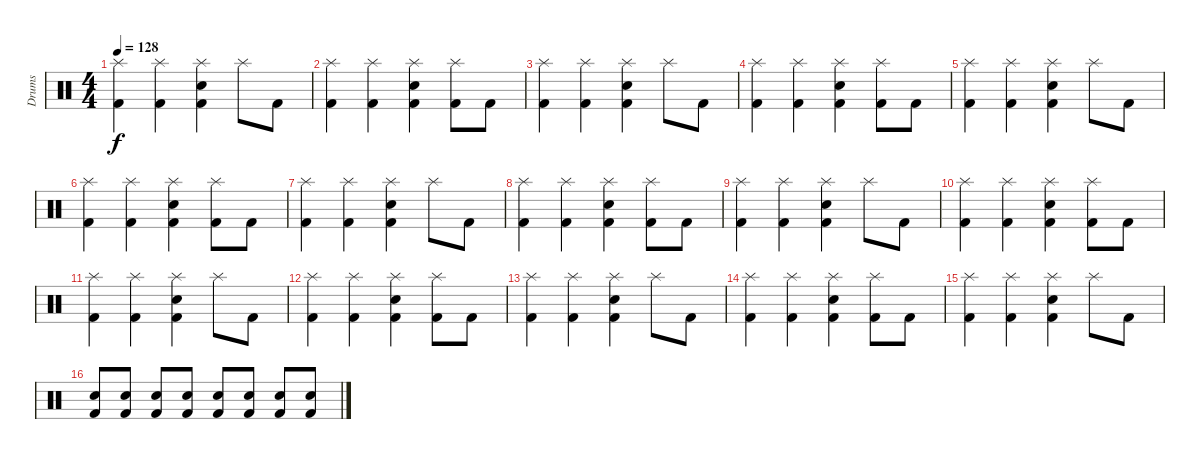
\track ("Drums" "Drums") {instrument percussion}
\staff {score}
\articulation defaults
\ts (4 4)
\tempo 128
\clef neutral
\ks c
("Splash (hit)" "Kick (hit) 2").4{dy f} ("Splash (hit)" "Kick (hit) 2").4 ("Splash (hit)" "Electric Snare (hit)" "Kick (hit) 2").4 "Splash (hit)".8 "Kick (hit) 2".8 |
("Splash (hit)" "Kick (hit) 2").4 ("Splash (hit)" "Kick (hit) 2").4 ("Splash (hit)" "Electric Snare (hit)" "Kick (hit) 2").4 ("Splash (hit)" "Kick (hit) 2").8 "Kick (hit) 2".8 |
("Splash (hit)" "Kick (hit) 2").4 ("Splash (hit)" "Kick (hit) 2").4 ("Splash (hit)" "Electric Snare (hit)" "Kick (hit) 2").4 "Splash (hit)".8 "Kick (hit) 2".8 |
("Splash (hit)" "Kick (hit) 2").4 ("Splash (hit)" "Kick (hit) 2").4 ("Splash (hit)" "Electric Snare (hit)" "Kick (hit) 2").4 ("Splash (hit)" "Kick (hit) 2").8 "Kick (hit) 2".8 |
("Splash (hit)" "Kick (hit) 2").4 ("Splash (hit)" "Kick (hit) 2").4 ("Splash (hit)" "Electric Snare (hit)" "Kick (hit) 2").4 "Splash (hit)".8 "Kick (hit) 2".8 |
("Splash (hit)" "Kick (hit) 2").4 ("Splash (hit)" "Kick (hit) 2").4 ("Splash (hit)" "Electric Snare (hit)" "Kick (hit) 2").4 ("Splash (hit)" "Kick (hit) 2").8 "Kick (hit) 2".8 |
("Splash (hit)" "Kick (hit) 2").4 ("Splash (hit)" "Kick (hit) 2").4 ("Splash (hit)" "Electric Snare (hit)" "Kick (hit) 2").4 "Splash (hit)".8 "Kick (hit) 2".8 |
("Splash (hit)" "Kick (hit) 2").4 ("Splash (hit)" "Kick (hit) 2").4 ("Splash (hit)" "Electric Snare (hit)" "Kick (hit) 2").4 ("Splash (hit)" "Kick (hit) 2").8 "Kick (hit) 2".8 |
("Splash (hit)" "Kick (hit) 2").4 ("Splash (hit)" "Kick (hit) 2").4 ("Splash (hit)" "Electric Snare (hit)" "Kick (hit) 2").4 "Splash (hit)".8 "Kick (hit) 2".8 |
("Splash (hit)" "Kick (hit) 2").4 ("Splash (hit)" "Kick (hit) 2").4 ("Splash (hit)" "Electric Snare (hit)" "Kick (hit) 2").4 ("Splash (hit)" "Kick (hit) 2").8 "Kick (hit) 2".8 |
("Splash (hit)" "Kick (hit) 2").4 ("Splash (hit)" "Kick (hit) 2").4 ("Splash (hit)" "Electric Snare (hit)" "Kick (hit) 2").4 "Splash (hit)".8 "Kick (hit) 2".8 |
("Splash (hit)" "Kick (hit) 2").4 ("Splash (hit)" "Kick (hit) 2").4 ("Splash (hit)" "Electric Snare (hit)" "Kick (hit) 2").4 ("Splash (hit)" "Kick (hit) 2").8 "Kick (hit) 2".8 |
("Splash (hit)" "Kick (hit) 2").4 ("Splash (hit)" "Kick (hit) 2").4 ("Splash (hit)" "Electric Snare (hit)" "Kick (hit) 2").4 "Splash (hit)".8 "Kick (hit) 2".8 |
("Splash (hit)" "Kick (hit) 2").4 ("Splash (hit)" "Kick (hit) 2").4 ("Splash (hit)" "Electric Snare (hit)" "Kick (hit) 2").4 ("Splash (hit)" "Kick (hit) 2").8 "Kick (hit) 2".8 |
("Splash (hit)" "Kick (hit) 2").4 ("Splash (hit)" "Kick (hit) 2").4 ("Splash (hit)" "Electric Snare (hit)" "Kick (hit) 2").4 "Splash (hit)".8 "Kick (hit) 2".8 |
("Snare (hit) 2" "Kick (hit) 2").8 ("Snare (hit) 2" "Kick (hit) 2").8 ("Snare (hit) 2" "Kick (hit) 2").8 ("Snare (hit) 2" "Kick (hit) 2").8 ("Snare (hit) 2" "Kick (hit) 2").8 ("Snare (hit) 2" "Kick (hit) 2").8 ("Snare (hit) 2" "Kick (hit) 2").8 ("Snare (hit) 2" "Kick (hit) 2").8
